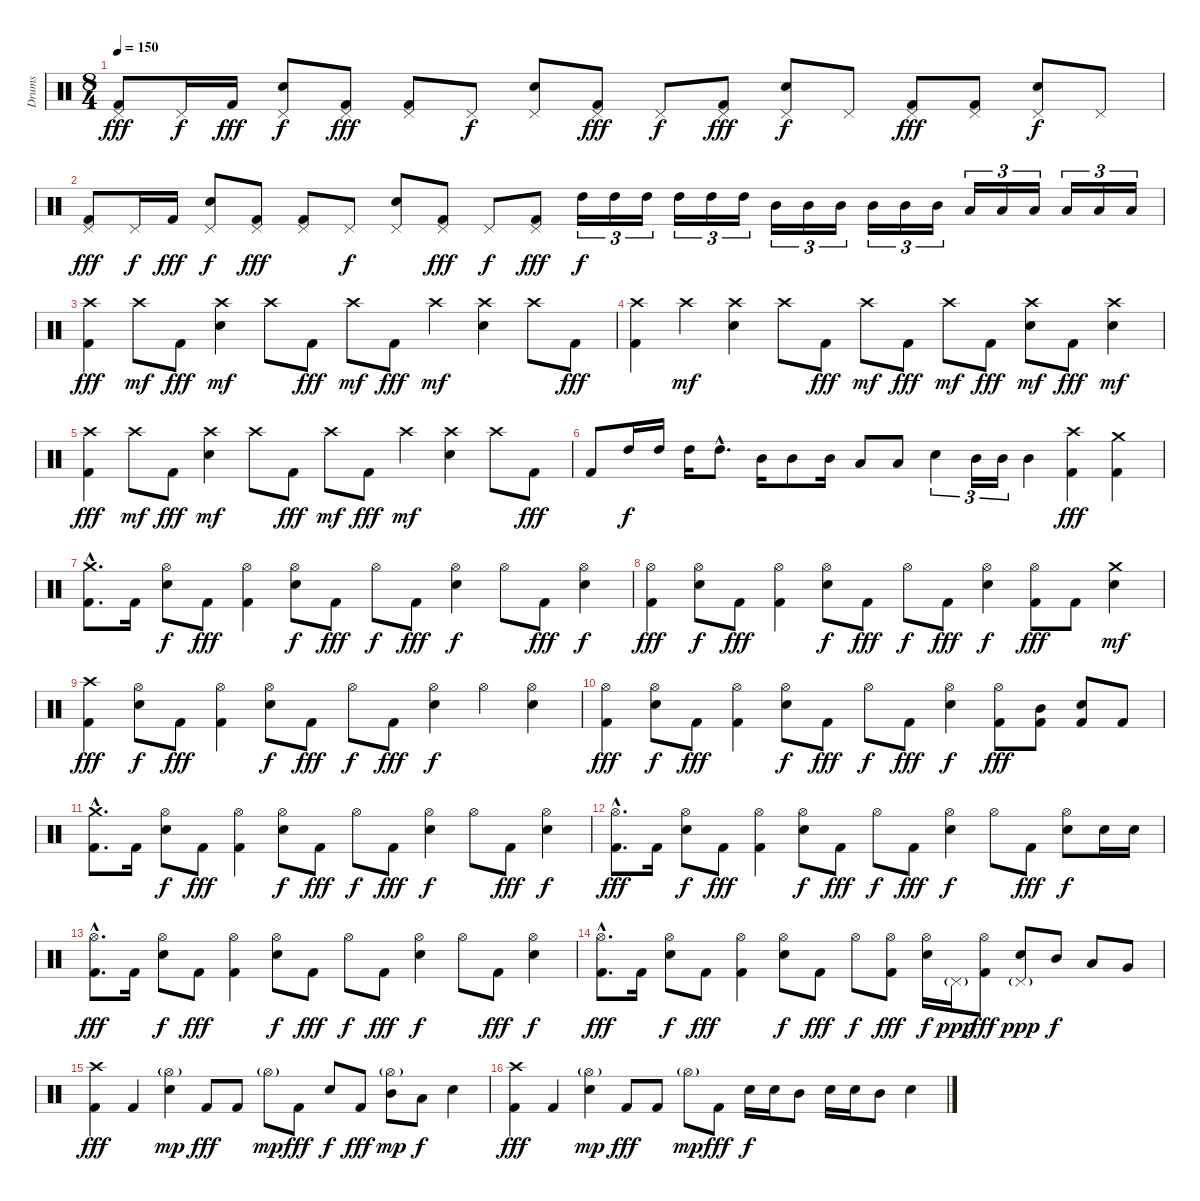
\track ("Drums" "Drums") {instrument percussion}
\staff {score}
\articulation defaults
\ts (8 4)
\tempo 150
\clef neutral
\ks c
("Pedal Hi-Hat (hit)" "Kick (hit) 2").8{dy fff} "Pedal Hi-Hat (hit)".16{dy f} "Kick (hit) 2".16{dy fff} ("Pedal Hi-Hat (hit)" "Snare (hit) 2").8{dy f} ("Pedal Hi-Hat (hit)" "Kick (hit) 2").8{dy fff} ("Pedal Hi-Hat (hit)" "Kick (hit) 2").8 "Pedal Hi-Hat (hit)".8{dy f} ("Pedal Hi-Hat (hit)" "Snare (hit) 2").8 ("Pedal Hi-Hat (hit)" "Kick (hit) 2").8{dy fff} "Pedal Hi-Hat (hit)".8{dy f} ("Pedal Hi-Hat (hit)" "Kick (hit) 2").8{dy fff} ("Pedal Hi-Hat (hit)" "Snare (hit) 2").8{dy f} "Pedal Hi-Hat (hit)".8 ("Pedal Hi-Hat (hit)" "Kick (hit) 2").8{dy fff} ("Pedal Hi-Hat (hit)" "Kick (hit) 2").8 ("Pedal Hi-Hat (hit)" "Snare (hit) 2").8{dy f} "Pedal Hi-Hat (hit)".8 |
("Pedal Hi-Hat (hit)" "Kick (hit) 2").8{dy fff} "Pedal Hi-Hat (hit)".16{dy f} "Kick (hit) 2".16{dy fff} ("Pedal Hi-Hat (hit)" "Snare (hit) 2").8{dy f} ("Pedal Hi-Hat (hit)" "Kick (hit) 2").8{dy fff} ("Pedal Hi-Hat (hit)" "Kick (hit) 2").8 "Pedal Hi-Hat (hit)".8{dy f} ("Pedal Hi-Hat (hit)" "Snare (hit) 2").8 ("Pedal Hi-Hat (hit)" "Kick (hit) 2").8{dy fff} "Pedal Hi-Hat (hit)".8{dy f} ("Pedal Hi-Hat (hit)" "Kick (hit) 2").8{dy fff} "High Tom (hit)".16{tu (3 2) dy f} "High Tom (hit)".16{tu (3 2)} "High Tom (hit)".16{tu (3 2)} "High Tom (hit)".16{tu (3 2)} "High Tom (hit)".16{tu (3 2)} "High Tom (hit)".16{tu (3 2)} "Mid Tom (hit)".16{tu (3 2)} "Mid Tom (hit)".16{tu (3 2)} "Mid Tom (hit)".16{tu (3 2)} "Mid Tom (hit)".16{tu (3 2)} "Mid Tom (hit)".16{tu (3 2)} "Mid Tom (hit)".16{tu (3 2)} "Low Tom (hit)".16{tu (3 2)} "Low Tom (hit)".16{tu (3 2)} "Low Tom (hit)".16{tu (3 2)} "Low Tom (hit)".16{tu (3 2)} "Low Tom (hit)".16{tu (3 2)} "Low Tom (hit)".16{tu (3 2)} |
("Crash high (hit)" "Kick (hit) 2").4{dy fff} "Crash high (hit)".8{dy mf} "Kick (hit) 2".8{dy fff} ("Crash high (hit)" "Snare (hit) 2").4{dy mf} "Crash high (hit)".8 "Kick (hit) 2".8{dy fff} "Crash high (hit)".8{dy mf} "Kick (hit) 2".8{dy fff} "Crash high (hit)".4{dy mf} ("Crash high (hit)" "Snare (hit) 2").4 "Crash high (hit)".8 "Kick (hit) 2".8{dy fff} |
("Crash high (hit)" "Kick (hit) 2").4 "Crash high (hit)".4{dy mf} ("Crash high (hit)" "Snare (hit) 2").4 "Crash high (hit)".8 "Kick (hit) 2".8{dy fff} "Crash high (hit)".8{dy mf} "Kick (hit) 2".8{dy fff} "Crash high (hit)".8{dy mf} "Kick (hit) 2".8{dy fff} ("Crash high (hit)" "Snare (hit) 2").8{dy mf} "Kick (hit) 2".8{dy fff} ("Crash high (hit)" "Snare (hit) 2").4{dy mf} |
("Crash high (hit)" "Kick (hit) 2").4{dy fff} "Crash high (hit)".8{dy mf} "Kick (hit) 2".8{dy fff} ("Crash high (hit)" "Snare (hit) 2").4{dy mf} "Crash high (hit)".8 "Kick (hit) 2".8{dy fff} "Crash high (hit)".8{dy mf} "Kick (hit) 2".8{dy fff} "Crash high (hit)".4{dy mf} ("Crash high (hit)" "Snare (hit) 2").4 "Crash high (hit)".8 "Kick (hit) 2".8{dy fff} |
"Kick (hit) 2".8 "High Tom (hit)".16{dy f} "High Tom (hit)".16 "High Tom (hit)".16 "High Tom (hit)"{hac}.8{d} "Mid Tom (hit)".16 "Mid Tom (hit)".8 "Mid Tom (hit)".16 "Low Tom (hit)".8 "Low Tom (hit)".8 "Snare (hit) 2".4{tu (3 2)} "Mid Tom (hit)".16{tu (3 2)} "Mid Tom (hit)".16{tu (3 2)} "Mid Tom (hit)".4 ("Crash high (hit)" "Kick (hit) 2").4{dy fff} ("Crash medium (hit)" "Kick (hit) 2").4 |
("Crash medium (hit)"{hac} "Kick (hit) 2"{hac}).8{d} "Kick (hit) 2".16 ("Hi-Hat (open)" "Snare (hit) 2").8{dy f} "Kick (hit) 2".8{dy fff} ("Hi-Hat (open)" "Kick (hit) 2").4 ("Hi-Hat (open)" "Snare (hit) 2").8{dy f} "Kick (hit) 2".8{dy fff} "Hi-Hat (open)".8{dy f} "Kick (hit) 2".8{dy fff} ("Hi-Hat (open)" "Snare (hit) 2").4{dy f} "Hi-Hat (open)".8 "Kick (hit) 2".8{dy fff} ("Hi-Hat (open)" "Snare (hit) 2").4{dy f} |
("Hi-Hat (open)" "Kick (hit) 2").4{dy fff} ("Hi-Hat (open)" "Snare (hit) 2").8{dy f} "Kick (hit) 2".8{dy fff} ("Hi-Hat (open)" "Kick (hit) 2").4 ("Hi-Hat (open)" "Snare (hit) 2").8{dy f} "Kick (hit) 2".8{dy fff} "Hi-Hat (open)".8{dy f} "Kick (hit) 2".8{dy fff} ("Hi-Hat (open)" "Snare (hit) 2").4{dy f} ("Hi-Hat (open)" "Kick (hit) 2").8{dy fff} "Kick (hit) 2".8 ("Crash medium (hit)" "Snare (hit) 2").4{dy mf} |
("Crash high (hit)" "Kick (hit) 2").4{dy fff} ("Hi-Hat (open)" "Snare (hit) 2").8{dy f} "Kick (hit) 2".8{dy fff} ("Hi-Hat (open)" "Kick (hit) 2").4 ("Hi-Hat (open)" "Snare (hit) 2").8{dy f} "Kick (hit) 2".8{dy fff} "Hi-Hat (open)".8{dy f} "Kick (hit) 2".8{dy fff} ("Hi-Hat (open)" "Snare (hit) 2").4{dy f} "Hi-Hat (open)".4 ("Hi-Hat (open)" "Snare (hit) 2").4 |
("Hi-Hat (open)" "Kick (hit) 2").4{dy fff} ("Hi-Hat (open)" "Snare (hit) 2").8{dy f} "Kick (hit) 2".8{dy fff} ("Hi-Hat (open)" "Kick (hit) 2").4 ("Hi-Hat (open)" "Snare (hit) 2").8{dy f} "Kick (hit) 2".8{dy fff} "Hi-Hat (open)".8{dy f} "Kick (hit) 2".8{dy fff} ("Hi-Hat (open)" "Snare (hit) 2").4{dy f} ("Hi-Hat (open)" "Kick (hit) 2").8{dy fff} ("Mid Tom (hit)" "Kick (hit) 2").8 ("Snare (hit) 2" "Kick (hit) 2").8 "Kick (hit) 2".8 |
("Crash medium (hit)"{hac} "Kick (hit) 2"{hac}).8{d} "Kick (hit) 2".16 ("Hi-Hat (open)" "Snare (hit) 2").8{dy f} "Kick (hit) 2".8{dy fff} ("Hi-Hat (open)" "Kick (hit) 2").4 ("Hi-Hat (open)" "Snare (hit) 2").8{dy f} "Kick (hit) 2".8{dy fff} "Hi-Hat (open)".8{dy f} "Kick (hit) 2".8{dy fff} ("Hi-Hat (open)" "Snare (hit) 2").4{dy f} "Hi-Hat (open)".8 "Kick (hit) 2".8{dy fff} ("Hi-Hat (open)" "Snare (hit) 2").4{dy f} |
("Hi-Hat (open)"{hac} "Kick (hit) 2"{hac}).8{d dy fff} "Kick (hit) 2".16 ("Hi-Hat (open)" "Snare (hit) 2").8{dy f} "Kick (hit) 2".8{dy fff} ("Hi-Hat (open)" "Kick (hit) 2").4 ("Hi-Hat (open)" "Snare (hit) 2").8{dy f} "Kick (hit) 2".8{dy fff} "Hi-Hat (open)".8{dy f} "Kick (hit) 2".8{dy fff} ("Hi-Hat (open)" "Snare (hit) 2").4{dy f} "Hi-Hat (open)".8 "Kick (hit) 2".8{dy fff} ("Hi-Hat (open)" "Snare (hit) 2").8{dy f} "Snare (hit) 2".16 "Snare (hit) 2".16 |
("Hi-Hat (open)"{hac} "Kick (hit) 2"{hac}).8{d dy fff} "Kick (hit) 2".16 ("Hi-Hat (open)" "Snare (hit) 2").8{dy f} "Kick (hit) 2".8{dy fff} ("Hi-Hat (open)" "Kick (hit) 2").4 ("Hi-Hat (open)" "Snare (hit) 2").8{dy f} "Kick (hit) 2".8{dy fff} "Hi-Hat (open)".8{dy f} "Kick (hit) 2".8{dy fff} ("Hi-Hat (open)" "Snare (hit) 2").4{dy f} "Hi-Hat (open)".8 "Kick (hit) 2".8{dy fff} ("Hi-Hat (open)" "Snare (hit) 2").4{dy f} |
("Hi-Hat (open)"{hac} "Kick (hit) 2"{hac}).8{d dy fff} "Kick (hit) 2".16 ("Hi-Hat (open)" "Snare (hit) 2").8{dy f} "Kick (hit) 2".8{dy fff} ("Hi-Hat (open)" "Kick (hit) 2").4 ("Hi-Hat (open)" "Snare (hit) 2").8{dy f} "Kick (hit) 2".8{dy fff} "Hi-Hat (open)".8{dy f} ("Hi-Hat (open)" "Kick (hit) 2").8{dy fff} ("Hi-Hat (open)" "Snare (hit) 2").16{dy f} "Pedal Hi-Hat (hit)"{g}.16{dy ppp} ("Hi-Hat (open)" "Kick (hit) 2").8{dy fff} ("Pedal Hi-Hat (hit)"{g} "Snare (hit) 2").8{dy ppp} "Mid Tom (hit)".8{dy f} "Low Tom (hit)".8 "Very Low Tom (hit)".8 |
("Crash high (hit)" "Kick (hit) 2").4{dy fff} "Kick (hit) 2".4 ("Hi-Hat (open)"{g} "Snare (hit) 2").4{dy mp} "Kick (hit) 2".8{dy fff} "Kick (hit) 2".8 "Hi-Hat (open)"{g}.8{dy mp} "Kick (hit) 2".8{dy fff} "Snare (hit) 2".8{dy f} "Kick (hit) 2".8{dy fff} ("Hi-Hat (open)"{g} "Mid Tom (hit)").8{dy mp} "Low Tom (hit)".8{dy f} "Snare (hit) 2".4 |
("Crash high (hit)" "Kick (hit) 2").4{dy fff} "Kick (hit) 2".4 ("Hi-Hat (open)"{g} "Snare (hit) 2").4{dy mp} "Kick (hit) 2".8{dy fff} "Kick (hit) 2".8 "Hi-Hat (open)"{g}.8{dy mp} "Kick (hit) 2".8{dy fff} "Snare (hit) 2".16{dy f} "Snare (hit) 2".16 "Mid Tom (hit)".8 "Snare (hit) 2".16 "Snare (hit) 2".16 "Mid Tom (hit)".8 "Snare (hit) 2".4
